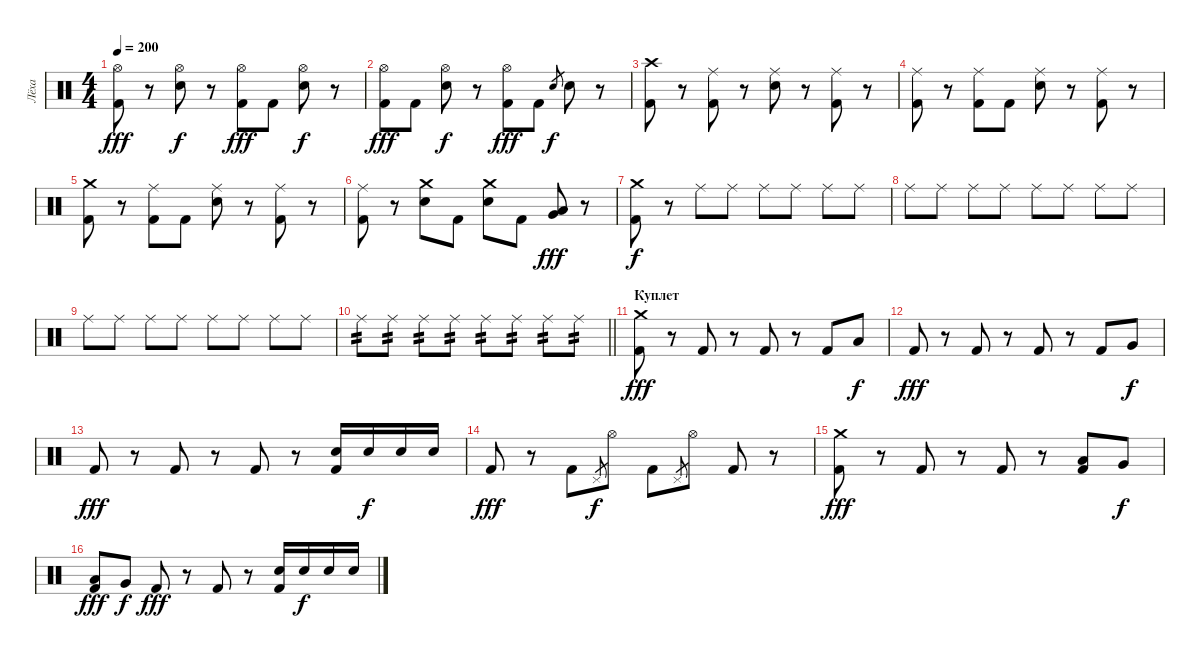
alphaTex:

\track ("Лёха" "Лёха") {instrument percussion}
\staff {score}
\articulation defaults
\ts (4 4)
\tempo 200
\clef neutral
\ks c
("Hi-Hat (open)" "Kick (hit) 2").8{dy fff} r.8 ("Hi-Hat (open)" "Electric Snare (hit)").8{dy f} r.8 ("Hi-Hat (open)" "Kick (hit) 2").8{dy fff} "Kick (hit) 2".8 ("Hi-Hat (open)" "Electric Snare (hit)").8{dy f} r.8 |
("Hi-Hat (open)" "Kick (hit) 2").8{dy fff} "Kick (hit) 2".8 ("Hi-Hat (open)" "Electric Snare (hit)").8{dy f} r.8 ("Hi-Hat (open)" "Kick (hit) 2").8{dy fff} "Kick (hit) 2".8 "Electric Snare (hit)".8{gr dy f} "Electric Snare (hit)".8 r.8 |
("Crash high (hit)" "Kick (hit) 2").8 r.8 ("Ride (middle)" "Kick (hit) 2").8 r.8 ("Ride (middle)" "Electric Snare (hit)").8 r.8 ("Ride (middle)" "Kick (hit) 2").8 r.8 |
("Ride (middle)" "Kick (hit) 2").8 r.8 ("Ride (middle)" "Kick (hit) 2").8 "Kick (hit) 2".8 ("Ride (middle)" "Electric Snare (hit)").8 r.8 ("Ride (middle)" "Kick (hit) 2").8 r.8 |
("Crash medium (hit)" "Kick (hit) 2").8 r.8 ("Ride (middle)" "Kick (hit) 2").8 "Kick (hit) 2".8 ("Ride (middle)" "Electric Snare (hit)").8 r.8 ("Ride (middle)" "Kick (hit) 2").8 r.8 |
("Ride (middle)" "Kick (hit) 2").8 r.8 ("Crash medium (hit)" "Electric Snare (hit)").8 "Kick (hit) 2".8 ("Crash medium (hit)" "Electric Snare (hit)").8 "Kick (hit) 2".8 ("Low Floor Tom (hit)" "Very Low Tom (hit)").8{dy fff} r.8 |
("Crash medium (hit)" "Kick (hit) 2").8{dy f} r.8 "Ride (middle)".8 "Ride (middle)".8 "Ride (middle)".8 "Ride (middle)".8 "Ride (middle)".8 "Ride (middle)".8 |
"Ride (middle)".8 "Ride (middle)".8 "Ride (middle)".8 "Ride (middle)".8 "Ride (middle)".8 "Ride (middle)".8 "Ride (middle)".8 "Ride (middle)".8 |
"Ride (middle)".8 "Ride (middle)".8 "Ride (middle)".8 "Ride (middle)".8 "Ride (middle)".8 "Ride (middle)".8 "Ride (middle)".8 "Ride (middle)".8 |
\barLineRight lightlight "Ride (middle)".8{tp 2} "Ride (middle)".8{tp 2} "Ride (middle)".8{tp 2} "Ride (middle)".8{tp 2} "Ride (middle)".8{tp 2} "Ride (middle)".8{tp 2} "Ride (middle)".8{tp 2} "Ride (middle)".8{tp 2}
|
\section ("" "Куплет")
("Crash medium (hit)" "Kick (hit) 2").8{dy fff} r.8 "Kick (hit) 2".8 r.8 "Kick (hit) 2".8 r.8 "Kick (hit) 2".8 "Low Tom (hit)".8{dy f} |
"Kick (hit) 2".8{dy fff} r.8 "Kick (hit) 2".8 r.8 "Kick (hit) 2".8 r.8 "Kick (hit) 2".8 "Very Low Tom (hit)".8{dy f} |
"Kick (hit) 2".8{dy fff} r.8 "Kick (hit) 2".8 r.8 "Kick (hit) 2".8 r.8 ("Electric Snare (hit)" "Kick (hit) 2").16 "Electric Snare (hit)".16{dy f} "Electric Snare (hit)".16 "Electric Snare (hit)".16 |
"Kick (hit) 2".8{dy fff} r.8 "Kick (hit) 2".8 "Pedal Hi-Hat (hit)".8{gr dy f} "Hi-Hat (open)".8 "Kick (hit) 2".8 "Pedal Hi-Hat (hit)".8{gr} "Hi-Hat (open)".8 "Kick (hit) 2".8 r.8 |
("Crash medium (hit)" "Kick (hit) 2").8{dy fff} r.8 "Kick (hit) 2".8 r.8 "Kick (hit) 2".8 r.8 ("Low Tom (hit)" "Kick (hit) 2").8 "Very Low Tom (hit)".8{dy f} |
("Low Tom (hit)" "Kick (hit) 2").8{dy fff} "Very Low Tom (hit)".8{dy f} "Kick (hit) 2".8{dy fff} r.8 "Kick (hit) 2".8 r.8 ("Electric Snare (hit)" "Kick (hit) 2").16 "Electric Snare (hit)".16{dy f} "Electric Snare (hit)".16 "Electric Snare (hit)".16
